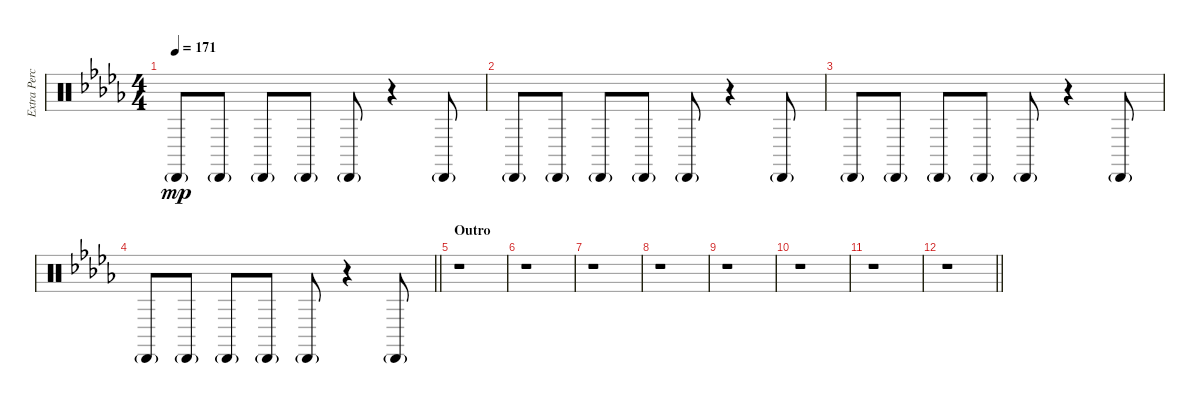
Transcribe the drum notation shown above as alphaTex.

\track ("Extra Percussion" "Extra Perc") {instrument percussion}
\staff {score}
\articulation defaults
\ts (4 4)
\tempo 171
\clef neutral
\ks db "Cabasa (hit)"{g}.8{dy mp} "Cabasa (hit)"{g}.8 "Cabasa (hit)"{g}.8 "Cabasa (hit)"{g}.8 "Cabasa (hit)"{g}.8
r.4 "Cabasa (hit)"{g}.8 |
"Cabasa (hit)"{g}.8 "Cabasa (hit)"{g}.8 "Cabasa (hit)"{g}.8 "Cabasa (hit)"{g}.8 "Cabasa (hit)"{g}.8 r.4 "Cabasa (hit)"{g}.8 |
"Cabasa (hit)"{g}.8 "Cabasa (hit)"{g}.8 "Cabasa (hit)"{g}.8 "Cabasa (hit)"{g}.8 "Cabasa (hit)"{g}.8 r.4 "Cabasa (hit)"{g}.8 |
\barLineRight lightlight "Cabasa (hit)"{g}.8 "Cabasa (hit)"{g}.8 "Cabasa (hit)"{g}.8 "Cabasa (hit)"{g}.8 "Cabasa (hit)"{g}.8
r.4 "Cabasa (hit)"{g}.8 |
\section ("" "Outro")
r.1 |
r.1 |
r.1 |
r.1 |
r.1 |
r.1 |
r.1 |
\barLineRight lightlight
r.1
